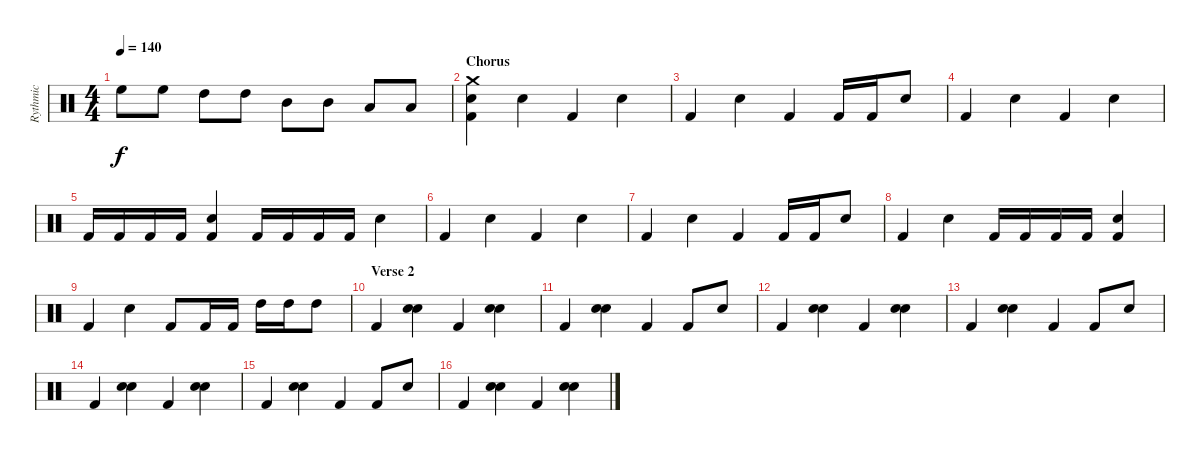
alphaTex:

\track ("Rythmic" "Rythmic") {instrument percussion}
\staff {score}
\articulation defaults
\ts (4 4)
\tempo 140
\clef neutral
\ks c "High Floor Tom (hit)".8{dy f} "High Floor Tom (hit)".8 "High Tom (hit)".8 "High Tom (hit)".8 "Mid Tom (hit)".8 "Mid Tom (hit)".8 "Low Floor Tom (hit)".8 "Low Floor Tom (hit)".8
|
\section ("" "Chorus")
("Crash medium (hit)" "Snare (hit) 2" "Kick (hit) 2").4 "Snare (hit) 2".4 "Kick (hit) 2".4 "Snare (hit) 2".4 |
"Kick (hit) 2".4 "Snare (hit) 2".4 "Kick (hit) 2".4 "Kick (hit) 2".16 "Kick (hit) 2".16 "Snare (hit) 2".8 |
"Kick (hit) 2".4 "Snare (hit) 2".4 "Kick (hit) 2".4 "Snare (hit) 2".4 |
"Kick (hit) 2".16 "Kick (hit) 2".16 "Kick (hit) 2".16 "Kick (hit) 2".16 ("Snare (hit) 2" "Kick (hit) 2").4 "Kick (hit) 2".16 "Kick (hit) 2".16 "Kick (hit) 2".16 "Kick (hit) 2".16 "Snare (hit) 2".4 |
"Kick (hit) 2".4 "Snare (hit) 2".4 "Kick (hit) 2".4 "Snare (hit) 2".4 |
"Kick (hit) 2".4 "Snare (hit) 2".4 "Kick (hit) 2".4 "Kick (hit) 2".16 "Kick (hit) 2".16 "Snare (hit) 2".8 |
"Kick (hit) 2".4 "Snare (hit) 2".4 "Kick (hit) 2".16 "Kick (hit) 2".16 "Kick (hit) 2".16 "Kick (hit) 2".16 ("Snare (hit) 2" "Kick (hit) 2").4 |
"Kick (hit) 2".4 "Snare (hit) 2".4 "Kick (hit) 2".8 "Kick (hit) 2".16 "Kick (hit) 2".16 "High Tom (hit)".16 "High Tom (hit)".16 "High Tom (hit)".8 |
\section ("" "Verse 2")
"Kick (hit) 2".4 ("Snare (hit) 2" "Snare (hit) 2").4 "Kick (hit) 2".4 ("Snare (hit) 2" "Snare (hit) 2").4 |
"Kick (hit) 2".4 ("Snare (hit) 2" "Snare (hit) 2").4 "Kick (hit) 2".4 "Kick (hit) 2".8 "Snare (hit) 2".8 |
"Kick (hit) 2".4 ("Snare (hit) 2" "Snare (hit) 2").4 "Kick (hit) 2".4 ("Snare (hit) 2" "Snare (hit) 2").4 |
"Kick (hit) 2".4 ("Snare (hit) 2" "Snare (hit) 2").4 "Kick (hit) 2".4 "Kick (hit) 2".8 "Snare (hit) 2".8 |
"Kick (hit) 2".4 ("Snare (hit) 2" "Snare (hit) 2").4 "Kick (hit) 2".4 ("Snare (hit) 2" "Snare (hit) 2").4 |
"Kick (hit) 2".4 ("Snare (hit) 2" "Snare (hit) 2").4 "Kick (hit) 2".4 "Kick (hit) 2".8 "Snare (hit) 2".8 |
"Kick (hit) 2".4 ("Snare (hit) 2" "Snare (hit) 2").4 "Kick (hit) 2".4 ("Snare (hit) 2" "Snare (hit) 2").4
